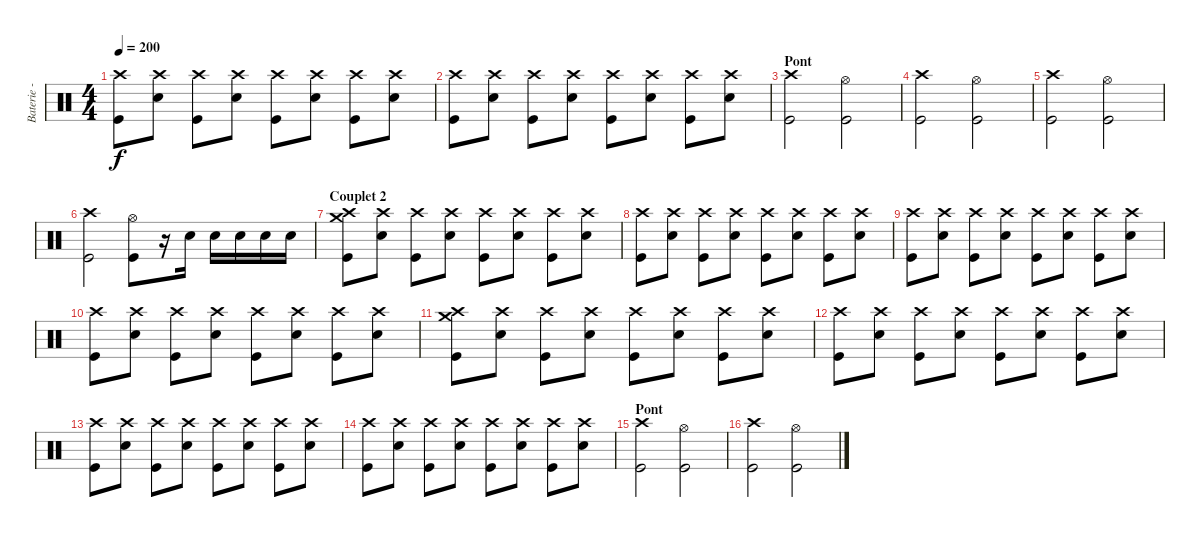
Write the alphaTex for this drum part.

\track ("Baterie - Alex" "Baterie - ") {instrument percussion}
\staff {score}
\articulation defaults
\ts (4 4)
\tempo 200
\clef neutral
\ks c
("Crash high (hit)" "Kick (hit)").8{dy f} ("Crash high (hit)" "Electric Snare (hit)").8 ("Crash high (hit)" "Kick (hit)").8 ("Crash high (hit)" "Electric Snare (hit)").8 ("Crash high (hit)" "Kick (hit)").8 ("Crash high (hit)" "Electric Snare (hit)").8 ("Crash high (hit)" "Kick (hit)").8 ("Crash high (hit)" "Electric Snare (hit)").8 |
("Crash high (hit)" "Kick (hit)").8 ("Crash high (hit)" "Electric Snare (hit)").8 ("Crash high (hit)" "Kick (hit)").8 ("Crash high (hit)" "Electric Snare (hit)").8 ("Crash high (hit)" "Kick (hit)").8 ("Crash high (hit)" "Electric Snare (hit)").8 ("Crash high (hit)" "Kick (hit)").8 ("Crash high (hit)" "Electric Snare (hit)").8 |
\section ("" "Pont")
("Crash high (hit)" "Kick (hit)").2 ("Hi-Hat (open)" "Kick (hit)").2 |
("Crash high (hit)" "Kick (hit)").2 ("Hi-Hat (open)" "Kick (hit)").2 |
("Crash high (hit)" "Kick (hit)").2 ("Hi-Hat (open)" "Kick (hit)").2 |
("Crash high (hit)" "Kick (hit)").2 ("Hi-Hat (open)" "Kick (hit)").8 r.16 "Electric Snare (hit)".16 "Electric Snare (hit)".16 "Electric Snare (hit)".16 "Electric Snare (hit)".16 "Electric Snare (hit)".16 |
\section ("" "Couplet 2")
("Crash high (hit)" "Crash medium (hit)" "Kick (hit)").8 ("Crash high (hit)" "Electric Snare (hit)").8 ("Crash high (hit)" "Kick (hit)").8 ("Crash high (hit)" "Electric Snare (hit)").8 ("Crash high (hit)" "Kick (hit)").8 ("Crash high (hit)" "Electric Snare (hit)").8 ("Crash high (hit)" "Kick (hit)").8 ("Crash high (hit)" "Electric Snare (hit)").8 |
("Crash high (hit)" "Kick (hit)").8 ("Crash high (hit)" "Electric Snare (hit)").8 ("Crash high (hit)" "Kick (hit)").8 ("Crash high (hit)" "Electric Snare (hit)").8 ("Crash high (hit)" "Kick (hit)").8 ("Crash high (hit)" "Electric Snare (hit)").8 ("Crash high (hit)" "Kick (hit)").8 ("Crash high (hit)" "Electric Snare (hit)").8 |
("Crash high (hit)" "Kick (hit)").8 ("Crash high (hit)" "Electric Snare (hit)").8 ("Crash high (hit)" "Kick (hit)").8 ("Crash high (hit)" "Electric Snare (hit)").8 ("Crash high (hit)" "Kick (hit)").8 ("Crash high (hit)" "Electric Snare (hit)").8 ("Crash high (hit)" "Kick (hit)").8 ("Crash high (hit)" "Electric Snare (hit)").8 |
("Crash high (hit)" "Kick (hit)").8 ("Crash high (hit)" "Electric Snare (hit)").8 ("Crash high (hit)" "Kick (hit)").8 ("Crash high (hit)" "Electric Snare (hit)").8 ("Crash high (hit)" "Kick (hit)").8 ("Crash high (hit)" "Electric Snare (hit)").8 ("Crash high (hit)" "Kick (hit)").8 ("Crash high (hit)" "Electric Snare (hit)").8 |
("Crash high (hit)" "Crash medium (hit)" "Kick (hit)").8 ("Crash high (hit)" "Electric Snare (hit)").8 ("Crash high (hit)" "Kick (hit)").8 ("Crash high (hit)" "Electric Snare (hit)").8 ("Crash high (hit)" "Kick (hit)").8 ("Crash high (hit)" "Electric Snare (hit)").8 ("Crash high (hit)" "Kick (hit)").8 ("Crash high (hit)" "Electric Snare (hit)").8 |
("Crash high (hit)" "Kick (hit)").8 ("Crash high (hit)" "Electric Snare (hit)").8 ("Crash high (hit)" "Kick (hit)").8 ("Crash high (hit)" "Electric Snare (hit)").8 ("Crash high (hit)" "Kick (hit)").8 ("Crash high (hit)" "Electric Snare (hit)").8 ("Crash high (hit)" "Kick (hit)").8 ("Crash high (hit)" "Electric Snare (hit)").8 |
("Crash high (hit)" "Kick (hit)").8 ("Crash high (hit)" "Electric Snare (hit)").8 ("Crash high (hit)" "Kick (hit)").8 ("Crash high (hit)" "Electric Snare (hit)").8 ("Crash high (hit)" "Kick (hit)").8 ("Crash high (hit)" "Electric Snare (hit)").8 ("Crash high (hit)" "Kick (hit)").8 ("Crash high (hit)" "Electric Snare (hit)").8 |
("Crash high (hit)" "Kick (hit)").8 ("Crash high (hit)" "Electric Snare (hit)").8 ("Crash high (hit)" "Kick (hit)").8 ("Crash high (hit)" "Electric Snare (hit)").8 ("Crash high (hit)" "Kick (hit)").8 ("Crash high (hit)" "Electric Snare (hit)").8 ("Crash high (hit)" "Kick (hit)").8 ("Crash high (hit)" "Electric Snare (hit)").8 |
\section ("" "Pont")
("Crash high (hit)" "Kick (hit)").2 ("Hi-Hat (open)" "Kick (hit)").2 |
("Crash high (hit)" "Kick (hit)").2 ("Hi-Hat (open)" "Kick (hit)").2
